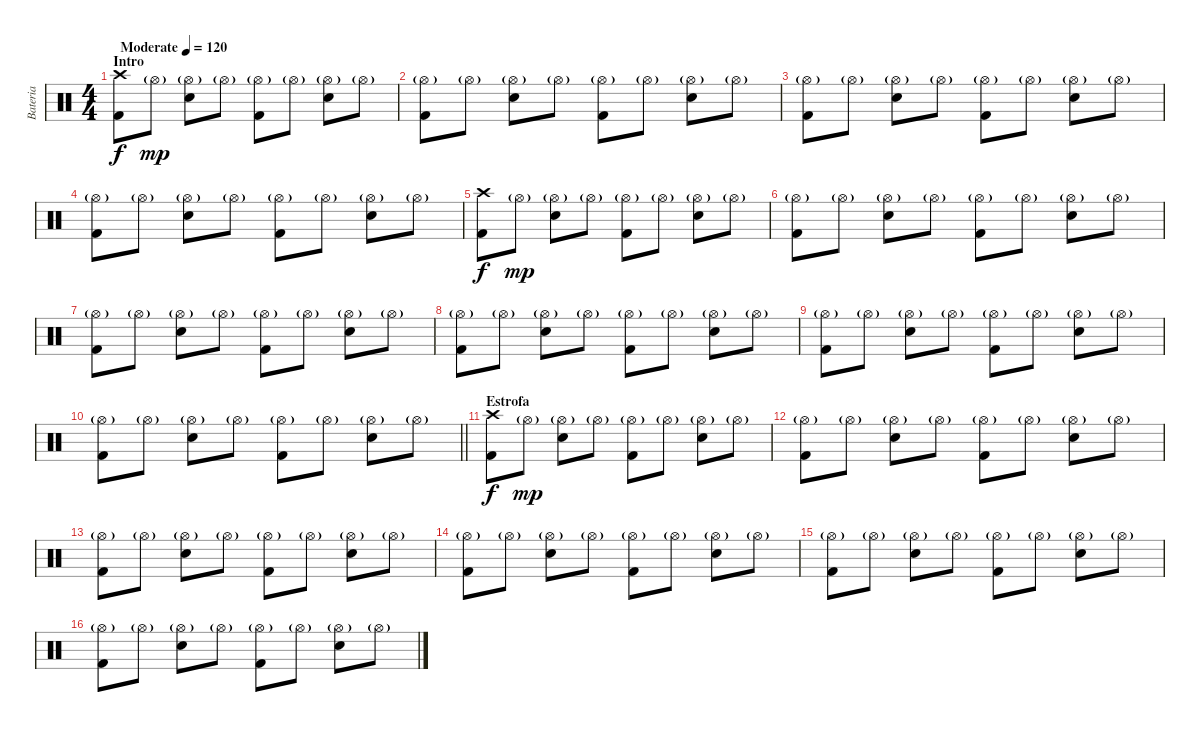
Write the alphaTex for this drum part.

\track ("Bateria" "Bateria") {instrument percussion}
\staff {score}
\articulation defaults
\ts (4 4)
\section ("" "Intro")
\tempo (120 "Moderate")
\clef neutral
\ks c
("Crash high (hit)" "Kick (hit) 2").8{dy f} "Hi-Hat (open)"{g}.8{dy mp} ("Hi-Hat (open)"{g} "Snare (hit) 2").8 "Hi-Hat (open)"{g}.8 ("Hi-Hat (open)"{g} "Kick (hit) 2").8 "Hi-Hat (open)"{g}.8 ("Hi-Hat (open)"{g} "Snare (hit) 2").8 "Hi-Hat (open)"{g}.8 |
("Hi-Hat (open)"{g} "Kick (hit) 2").8 "Hi-Hat (open)"{g}.8 ("Hi-Hat (open)"{g} "Snare (hit) 2").8 "Hi-Hat (open)"{g}.8 ("Hi-Hat (open)"{g} "Kick (hit) 2").8 "Hi-Hat (open)"{g}.8 ("Hi-Hat (open)"{g} "Snare (hit) 2").8 "Hi-Hat (open)"{g}.8 |
("Hi-Hat (open)"{g} "Kick (hit) 2").8 "Hi-Hat (open)"{g}.8 ("Hi-Hat (open)"{g} "Snare (hit) 2").8 "Hi-Hat (open)"{g}.8 ("Hi-Hat (open)"{g} "Kick (hit) 2").8 "Hi-Hat (open)"{g}.8 ("Hi-Hat (open)"{g} "Snare (hit) 2").8 "Hi-Hat (open)"{g}.8 |
("Hi-Hat (open)"{g} "Kick (hit) 2").8 "Hi-Hat (open)"{g}.8 ("Hi-Hat (open)"{g} "Snare (hit) 2").8 "Hi-Hat (open)"{g}.8 ("Hi-Hat (open)"{g} "Kick (hit) 2").8 "Hi-Hat (open)"{g}.8 ("Hi-Hat (open)"{g} "Snare (hit) 2").8 "Hi-Hat (open)"{g}.8 |
("Crash high (hit)" "Kick (hit) 2").8{dy f} "Hi-Hat (open)"{g}.8{dy mp} ("Hi-Hat (open)"{g} "Snare (hit) 2").8 "Hi-Hat (open)"{g}.8 ("Hi-Hat (open)"{g} "Kick (hit) 2").8 "Hi-Hat (open)"{g}.8 ("Hi-Hat (open)"{g} "Snare (hit) 2").8 "Hi-Hat (open)"{g}.8 |
("Hi-Hat (open)"{g} "Kick (hit) 2").8 "Hi-Hat (open)"{g}.8 ("Hi-Hat (open)"{g} "Snare (hit) 2").8 "Hi-Hat (open)"{g}.8 ("Hi-Hat (open)"{g} "Kick (hit) 2").8 "Hi-Hat (open)"{g}.8 ("Hi-Hat (open)"{g} "Snare (hit) 2").8 "Hi-Hat (open)"{g}.8 |
("Hi-Hat (open)"{g} "Kick (hit) 2").8 "Hi-Hat (open)"{g}.8 ("Hi-Hat (open)"{g} "Snare (hit) 2").8 "Hi-Hat (open)"{g}.8 ("Hi-Hat (open)"{g} "Kick (hit) 2").8 "Hi-Hat (open)"{g}.8 ("Hi-Hat (open)"{g} "Snare (hit) 2").8 "Hi-Hat (open)"{g}.8 |
("Hi-Hat (open)"{g} "Kick (hit) 2").8 "Hi-Hat (open)"{g}.8 ("Hi-Hat (open)"{g} "Snare (hit) 2").8 "Hi-Hat (open)"{g}.8 ("Hi-Hat (open)"{g} "Kick (hit) 2").8 "Hi-Hat (open)"{g}.8 ("Hi-Hat (open)"{g} "Snare (hit) 2").8 "Hi-Hat (open)"{g}.8 |
("Hi-Hat (open)"{g} "Kick (hit) 2").8 "Hi-Hat (open)"{g}.8 ("Hi-Hat (open)"{g} "Snare (hit) 2").8 "Hi-Hat (open)"{g}.8 ("Hi-Hat (open)"{g} "Kick (hit) 2").8 "Hi-Hat (open)"{g}.8 ("Hi-Hat (open)"{g} "Snare (hit) 2").8 "Hi-Hat (open)"{g}.8 |
\barLineRight lightlight
("Hi-Hat (open)"{g} "Kick (hit) 2").8 "Hi-Hat (open)"{g}.8 ("Hi-Hat (open)"{g} "Snare (hit) 2").8 "Hi-Hat (open)"{g}.8 ("Hi-Hat (open)"{g} "Kick (hit) 2").8 "Hi-Hat (open)"{g}.8 ("Hi-Hat (open)"{g} "Snare (hit) 2").8 "Hi-Hat (open)"{g}.8 |
\section ("" "Estrofa")
("Crash high (hit)" "Kick (hit) 2").8{dy f} "Hi-Hat (open)"{g}.8{dy mp} ("Hi-Hat (open)"{g} "Snare (hit) 2").8 "Hi-Hat (open)"{g}.8 ("Hi-Hat (open)"{g} "Kick (hit) 2").8 "Hi-Hat (open)"{g}.8 ("Hi-Hat (open)"{g} "Snare (hit) 2").8 "Hi-Hat (open)"{g}.8 |
("Hi-Hat (open)"{g} "Kick (hit) 2").8 "Hi-Hat (open)"{g}.8 ("Hi-Hat (open)"{g} "Snare (hit) 2").8 "Hi-Hat (open)"{g}.8 ("Hi-Hat (open)"{g} "Kick (hit) 2").8 "Hi-Hat (open)"{g}.8 ("Hi-Hat (open)"{g} "Snare (hit) 2").8 "Hi-Hat (open)"{g}.8 |
("Hi-Hat (open)"{g} "Kick (hit) 2").8 "Hi-Hat (open)"{g}.8 ("Hi-Hat (open)"{g} "Snare (hit) 2").8 "Hi-Hat (open)"{g}.8 ("Hi-Hat (open)"{g} "Kick (hit) 2").8 "Hi-Hat (open)"{g}.8 ("Hi-Hat (open)"{g} "Snare (hit) 2").8 "Hi-Hat (open)"{g}.8 |
("Hi-Hat (open)"{g} "Kick (hit) 2").8 "Hi-Hat (open)"{g}.8 ("Hi-Hat (open)"{g} "Snare (hit) 2").8 "Hi-Hat (open)"{g}.8 ("Hi-Hat (open)"{g} "Kick (hit) 2").8 "Hi-Hat (open)"{g}.8 ("Hi-Hat (open)"{g} "Snare (hit) 2").8 "Hi-Hat (open)"{g}.8 |
("Hi-Hat (open)"{g} "Kick (hit) 2").8 "Hi-Hat (open)"{g}.8 ("Hi-Hat (open)"{g} "Snare (hit) 2").8 "Hi-Hat (open)"{g}.8 ("Hi-Hat (open)"{g} "Kick (hit) 2").8 "Hi-Hat (open)"{g}.8 ("Hi-Hat (open)"{g} "Snare (hit) 2").8 "Hi-Hat (open)"{g}.8 |
("Hi-Hat (open)"{g} "Kick (hit) 2").8 "Hi-Hat (open)"{g}.8 ("Hi-Hat (open)"{g} "Snare (hit) 2").8 "Hi-Hat (open)"{g}.8 ("Hi-Hat (open)"{g} "Kick (hit) 2").8 "Hi-Hat (open)"{g}.8 ("Hi-Hat (open)"{g} "Snare (hit) 2").8 "Hi-Hat (open)"{g}.8
